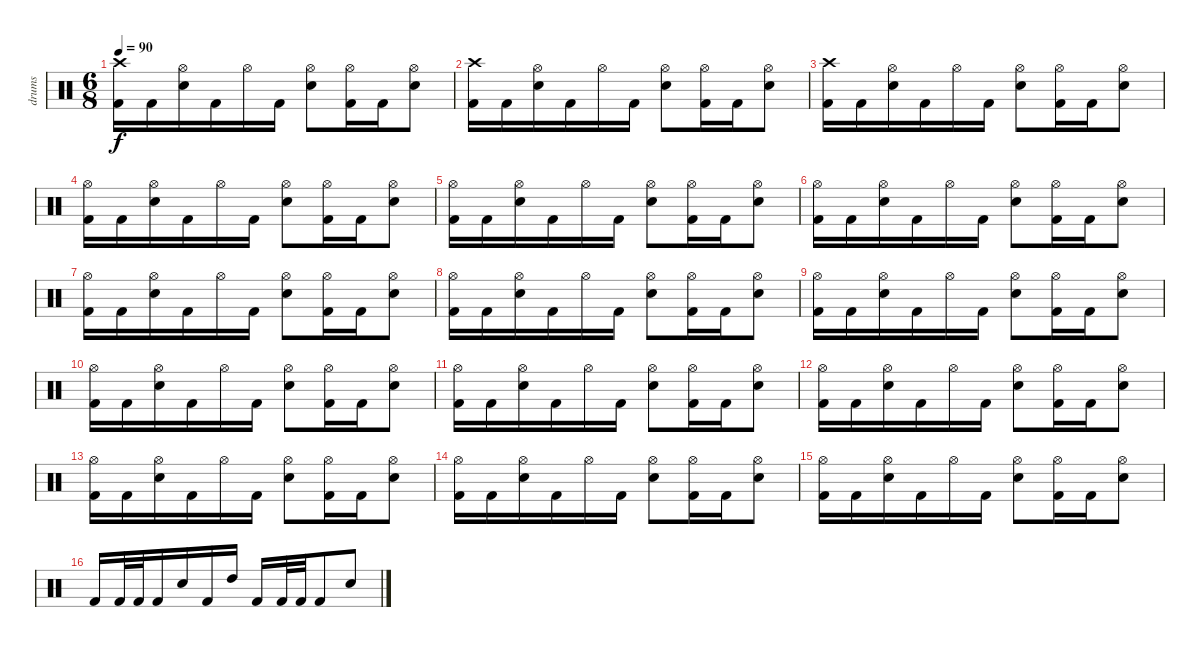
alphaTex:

\track ("drums" "drums") {instrument percussion}
\staff {score}
\articulation defaults
\ts (6 8)
\tempo 90
\clef neutral
\ks c
("Crash high (hit)" "Kick (hit) 2").16{dy f} "Kick (hit) 2".16 ("Hi-Hat (open)" "Electric Snare (hit)").16 "Kick (hit) 2".16 "Hi-Hat (open)".16 "Kick (hit) 2".16 ("Hi-Hat (open)" "Electric Snare (hit)").8 ("Hi-Hat (open)" "Kick (hit) 2").16 "Kick (hit) 2".16 ("Hi-Hat (open)" "Electric Snare (hit)").8 |
("Crash high (hit)" "Kick (hit) 2").16 "Kick (hit) 2".16 ("Hi-Hat (open)" "Electric Snare (hit)").16 "Kick (hit) 2".16 "Hi-Hat (open)".16 "Kick (hit) 2".16 ("Hi-Hat (open)" "Electric Snare (hit)").8 ("Hi-Hat (open)" "Kick (hit) 2").16 "Kick (hit) 2".16 ("Hi-Hat (open)" "Electric Snare (hit)").8 |
("Crash high (hit)" "Kick (hit) 2").16 "Kick (hit) 2".16 ("Hi-Hat (open)" "Electric Snare (hit)").16 "Kick (hit) 2".16 "Hi-Hat (open)".16 "Kick (hit) 2".16 ("Hi-Hat (open)" "Electric Snare (hit)").8 ("Hi-Hat (open)" "Kick (hit) 2").16 "Kick (hit) 2".16 ("Hi-Hat (open)" "Electric Snare (hit)").8 |
("Hi-Hat (open)" "Kick (hit) 2").16 "Kick (hit) 2".16 ("Hi-Hat (open)" "Electric Snare (hit)").16 "Kick (hit) 2".16 "Hi-Hat (open)".16 "Kick (hit) 2".16 ("Hi-Hat (open)" "Electric Snare (hit)").8 ("Hi-Hat (open)" "Kick (hit) 2").16 "Kick (hit) 2".16 ("Hi-Hat (open)" "Electric Snare (hit)").8 |
("Hi-Hat (open)" "Kick (hit) 2").16 "Kick (hit) 2".16 ("Hi-Hat (open)" "Electric Snare (hit)").16 "Kick (hit) 2".16 "Hi-Hat (open)".16 "Kick (hit) 2".16 ("Hi-Hat (open)" "Electric Snare (hit)").8 ("Hi-Hat (open)" "Kick (hit) 2").16 "Kick (hit) 2".16 ("Hi-Hat (open)" "Electric Snare (hit)").8 |
("Hi-Hat (open)" "Kick (hit) 2").16 "Kick (hit) 2".16 ("Hi-Hat (open)" "Electric Snare (hit)").16 "Kick (hit) 2".16 "Hi-Hat (open)".16 "Kick (hit) 2".16 ("Hi-Hat (open)" "Electric Snare (hit)").8 ("Hi-Hat (open)" "Kick (hit) 2").16 "Kick (hit) 2".16 ("Hi-Hat (open)" "Electric Snare (hit)").8 |
("Hi-Hat (open)" "Kick (hit) 2").16 "Kick (hit) 2".16 ("Hi-Hat (open)" "Electric Snare (hit)").16 "Kick (hit) 2".16 "Hi-Hat (open)".16 "Kick (hit) 2".16 ("Hi-Hat (open)" "Electric Snare (hit)").8 ("Hi-Hat (open)" "Kick (hit) 2").16 "Kick (hit) 2".16 ("Hi-Hat (open)" "Electric Snare (hit)").8 |
("Hi-Hat (open)" "Kick (hit) 2").16 "Kick (hit) 2".16 ("Hi-Hat (open)" "Electric Snare (hit)").16 "Kick (hit) 2".16 "Hi-Hat (open)".16 "Kick (hit) 2".16 ("Hi-Hat (open)" "Electric Snare (hit)").8 ("Hi-Hat (open)" "Kick (hit) 2").16 "Kick (hit) 2".16 ("Hi-Hat (open)" "Electric Snare (hit)").8 |
("Hi-Hat (open)" "Kick (hit) 2").16 "Kick (hit) 2".16 ("Hi-Hat (open)" "Electric Snare (hit)").16 "Kick (hit) 2".16 "Hi-Hat (open)".16 "Kick (hit) 2".16 ("Hi-Hat (open)" "Electric Snare (hit)").8 ("Hi-Hat (open)" "Kick (hit) 2").16 "Kick (hit) 2".16 ("Hi-Hat (open)" "Electric Snare (hit)").8 |
("Hi-Hat (open)" "Kick (hit) 2").16 "Kick (hit) 2".16 ("Hi-Hat (open)" "Electric Snare (hit)").16 "Kick (hit) 2".16 "Hi-Hat (open)".16 "Kick (hit) 2".16 ("Hi-Hat (open)" "Electric Snare (hit)").8 ("Hi-Hat (open)" "Kick (hit) 2").16 "Kick (hit) 2".16 ("Hi-Hat (open)" "Electric Snare (hit)").8 |
("Hi-Hat (open)" "Kick (hit) 2").16 "Kick (hit) 2".16 ("Hi-Hat (open)" "Electric Snare (hit)").16 "Kick (hit) 2".16 "Hi-Hat (open)".16 "Kick (hit) 2".16 ("Hi-Hat (open)" "Electric Snare (hit)").8 ("Hi-Hat (open)" "Kick (hit) 2").16 "Kick (hit) 2".16 ("Hi-Hat (open)" "Electric Snare (hit)").8 |
("Hi-Hat (open)" "Kick (hit) 2").16 "Kick (hit) 2".16 ("Hi-Hat (open)" "Electric Snare (hit)").16 "Kick (hit) 2".16 "Hi-Hat (open)".16 "Kick (hit) 2".16 ("Hi-Hat (open)" "Electric Snare (hit)").8 ("Hi-Hat (open)" "Kick (hit) 2").16 "Kick (hit) 2".16 ("Hi-Hat (open)" "Electric Snare (hit)").8 |
("Hi-Hat (open)" "Kick (hit) 2").16 "Kick (hit) 2".16 ("Hi-Hat (open)" "Electric Snare (hit)").16 "Kick (hit) 2".16 "Hi-Hat (open)".16 "Kick (hit) 2".16 ("Hi-Hat (open)" "Electric Snare (hit)").8 ("Hi-Hat (open)" "Kick (hit) 2").16 "Kick (hit) 2".16 ("Hi-Hat (open)" "Electric Snare (hit)").8 |
("Hi-Hat (open)" "Kick (hit) 2").16 "Kick (hit) 2".16 ("Hi-Hat (open)" "Electric Snare (hit)").16 "Kick (hit) 2".16 "Hi-Hat (open)".16 "Kick (hit) 2".16 ("Hi-Hat (open)" "Electric Snare (hit)").8 ("Hi-Hat (open)" "Kick (hit) 2").16 "Kick (hit) 2".16 ("Hi-Hat (open)" "Electric Snare (hit)").8 |
("Hi-Hat (open)" "Kick (hit) 2").16 "Kick (hit) 2".16 ("Hi-Hat (open)" "Electric Snare (hit)").16 "Kick (hit) 2".16 "Hi-Hat (open)".16 "Kick (hit) 2".16 ("Hi-Hat (open)" "Electric Snare (hit)").8 ("Hi-Hat (open)" "Kick (hit) 2").16 "Kick (hit) 2".16 ("Hi-Hat (open)" "Electric Snare (hit)").8 |
"Kick (hit) 2".16 "Kick (hit) 2".32 "Kick (hit) 2".32 "Kick (hit) 2".16 "Electric Snare (hit)".16 "Kick (hit) 2".16 "High Tom (hit)".16 "Kick (hit) 2".16 "Kick (hit) 2".32 "Kick (hit) 2".32 "Kick (hit) 2".8 "Electric Snare (hit)".8
